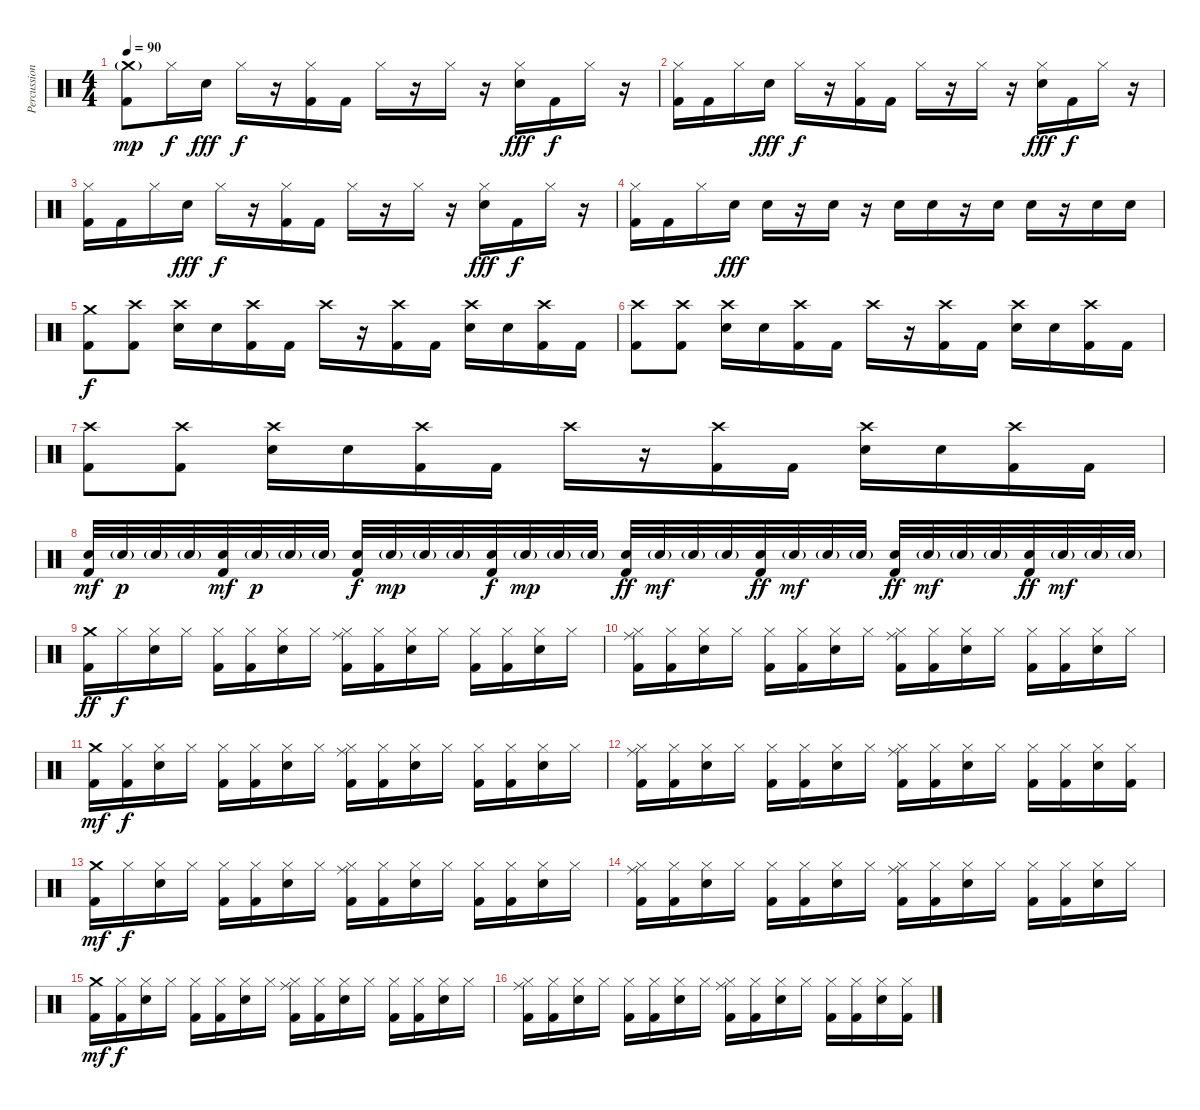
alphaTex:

\track ("Percussions" "Percussion") {instrument percussion}
\staff {score}
\articulation defaults
\ts (4 4)
\tempo 90
\clef neutral
\ks c
("Kick (hit) 2" "Crash medium (hit)"{g}).8{dy mp} "Hi-Hat (closed)".16{dy f} "Electric Snare (hit)".16{dy fff} "Hi-Hat (closed)".16{dy f} r.16 ("Kick (hit) 2" "Hi-Hat (closed)").16 "Kick (hit) 2".16 "Hi-Hat (closed)".16 r.16 "Hi-Hat (closed)".16 r.16 ("Electric Snare (hit)" "Hi-Hat (closed)").16{dy fff} "Kick (hit) 2".16{dy f} "Hi-Hat (closed)".16 r.16 |
("Kick (hit) 2" "Hi-Hat (closed)").16 "Kick (hit) 2".16 "Hi-Hat (closed)".16 "Electric Snare (hit)".16{dy fff} "Hi-Hat (closed)".16{dy f} r.16 ("Kick (hit) 2" "Hi-Hat (closed)").16 "Kick (hit) 2".16 "Hi-Hat (closed)".16 r.16 "Hi-Hat (closed)".16 r.16 ("Electric Snare (hit)" "Hi-Hat (closed)").16{dy fff} "Kick (hit) 2".16{dy f} "Hi-Hat (closed)".16 r.16 |
("Kick (hit) 2" "Hi-Hat (closed)").16 "Kick (hit) 2".16 "Hi-Hat (closed)".16 "Electric Snare (hit)".16{dy fff} "Hi-Hat (closed)".16{dy f} r.16 ("Kick (hit) 2" "Hi-Hat (closed)").16 "Kick (hit) 2".16 "Hi-Hat (closed)".16 r.16 "Hi-Hat (closed)".16 r.16 ("Electric Snare (hit)" "Hi-Hat (closed)").16{dy fff} "Kick (hit) 2".16{dy f} "Hi-Hat (closed)".16 r.16 |
("Kick (hit) 2" "Hi-Hat (closed)").16 "Kick (hit) 2".16 "Hi-Hat (closed)".16 "Electric Snare (hit)".16{dy fff} "Electric Snare (hit)".16 r.16 "Electric Snare (hit)".16 r.16 "Electric Snare (hit)".16 "Electric Snare (hit)".16 r.16 "Electric Snare (hit)".16 "Electric Snare (hit)".16 r.16 "Electric Snare (hit)".16 "Electric Snare (hit)".16 |
("Kick (hit) 2" "Crash medium (hit)").8{dy f} ("Kick (hit) 2" "Crash high (hit)").8 ("Electric Snare (hit)" "Crash high (hit)").16 "Electric Snare (hit)".16 ("Kick (hit) 2" "Crash high (hit)").16 "Kick (hit) 2".16 "Crash high (hit)".16 r.16 ("Kick (hit) 2" "Crash high (hit)").16 "Kick (hit) 2".16 ("Electric Snare (hit)" "Crash high (hit)").16 "Electric Snare (hit)".16 ("Kick (hit) 2" "Crash high (hit)").16 "Kick (hit) 2".16 |
("Kick (hit) 2" "Crash high (hit)").8 ("Kick (hit) 2" "Crash high (hit)").8 ("Electric Snare (hit)" "Crash high (hit)").16 "Electric Snare (hit)".16 ("Kick (hit) 2" "Crash high (hit)").16 "Kick (hit) 2".16 "Crash high (hit)".16 r.16 ("Kick (hit) 2" "Crash high (hit)").16 "Kick (hit) 2".16 ("Electric Snare (hit)" "Crash high (hit)").16 "Electric Snare (hit)".16 ("Kick (hit) 2" "Crash high (hit)").16 "Kick (hit) 2".16 |
("Kick (hit) 2" "Crash high (hit)").8 ("Kick (hit) 2" "Crash high (hit)").8 ("Electric Snare (hit)" "Crash high (hit)").16 "Electric Snare (hit)".16 ("Kick (hit) 2" "Crash high (hit)").16 "Kick (hit) 2".16 "Crash high (hit)".16 r.16 ("Kick (hit) 2" "Crash high (hit)").16 "Kick (hit) 2".16 ("Electric Snare (hit)" "Crash high (hit)").16 "Electric Snare (hit)".16 ("Kick (hit) 2" "Crash high (hit)").16 "Kick (hit) 2".16 |
("Electric Snare (hit)" "Kick (hit) 2").32{dy mf} "Electric Snare (hit)"{g}.32{dy p} "Electric Snare (hit)"{g}.32 "Electric Snare (hit)"{g}.32 ("Electric Snare (hit)" "Kick (hit) 2").32{dy mf} "Electric Snare (hit)"{g}.32{dy p} "Electric Snare (hit)"{g}.32 "Electric Snare (hit)"{g}.32 ("Electric Snare (hit)" "Kick (hit) 2").32{dy f} "Electric Snare (hit)"{g}.32{dy mp} "Electric Snare (hit)"{g}.32 "Electric Snare (hit)"{g}.32 ("Electric Snare (hit)" "Kick (hit) 2").32{dy f} "Electric Snare (hit)"{g}.32{dy mp} "Electric Snare (hit)"{g}.32 "Electric Snare (hit)"{g}.32 ("Electric Snare (hit)" "Kick (hit) 2").32{dy ff} "Electric Snare (hit)"{g}.32{dy mf} "Electric Snare (hit)"{g}.32 "Electric Snare (hit)"{g}.32 ("Electric Snare (hit)" "Kick (hit) 2").32{dy ff} "Electric Snare (hit)"{g}.32{dy mf} "Electric Snare (hit)"{g}.32 "Electric Snare (hit)"{g}.32 ("Electric Snare (hit)" "Kick (hit) 2").32{dy ff} "Electric Snare (hit)"{g}.32{dy mf} "Electric Snare (hit)"{g}.32 "Electric Snare (hit)"{g}.32 ("Electric Snare (hit)" "Kick (hit) 2").32{dy ff} "Electric Snare (hit)"{g}.32{dy mf} "Electric Snare (hit)"{g}.32 "Electric Snare (hit)"{g}.32 |
\section ("" "")
("Kick (hit) 2" "Crash medium (hit)").16{dy ff} "Hi-Hat (closed)".16{dy f} ("Electric Snare (hit)" "Hi-Hat (closed)").16 "Hi-Hat (closed)".16 ("Kick (hit) 2" "Hi-Hat (closed)").16 ("Kick (hit) 2" "Hi-Hat (closed)").16 ("Electric Snare (hit)" "Hi-Hat (closed)").16 "Hi-Hat (closed)".16 ("Kick (hit) 2" "Hi-Hat (closed)" "Ride (middle)").16 ("Kick (hit) 2" "Hi-Hat (closed)").16 ("Electric Snare (hit)" "Hi-Hat (closed)").16 "Hi-Hat (closed)".16 ("Kick (hit) 2" "Hi-Hat (closed)").16 ("Kick (hit) 2" "Hi-Hat (closed)").16 ("Electric Snare (hit)" "Hi-Hat (closed)").16 "Hi-Hat (closed)".16 |
("Kick (hit) 2" "Hi-Hat (closed)" "Ride (middle)").16 ("Kick (hit) 2" "Hi-Hat (closed)").16 ("Electric Snare (hit)" "Hi-Hat (closed)").16 "Hi-Hat (closed)".16 ("Kick (hit) 2" "Hi-Hat (closed)").16 ("Kick (hit) 2" "Hi-Hat (closed)").16 ("Electric Snare (hit)" "Hi-Hat (closed)").16 "Hi-Hat (closed)".16 ("Kick (hit) 2" "Hi-Hat (closed)" "Ride (middle)").16 ("Kick (hit) 2" "Hi-Hat (closed)").16 ("Electric Snare (hit)" "Hi-Hat (closed)").16 "Hi-Hat (closed)".16 ("Kick (hit) 2" "Hi-Hat (closed)").16 ("Kick (hit) 2" "Hi-Hat (closed)").16 ("Electric Snare (hit)" "Hi-Hat (closed)").16 "Hi-Hat (closed)".16 |
("Kick (hit) 2" "Crash medium (hit)").16{dy mf} ("Kick (hit) 2" "Hi-Hat (closed)").16{dy f} ("Electric Snare (hit)" "Hi-Hat (closed)").16 "Hi-Hat (closed)".16 ("Kick (hit) 2" "Hi-Hat (closed)").16 ("Kick (hit) 2" "Hi-Hat (closed)").16 ("Electric Snare (hit)" "Hi-Hat (closed)").16 "Hi-Hat (closed)".16 ("Kick (hit) 2" "Hi-Hat (closed)" "Ride (middle)").16 ("Kick (hit) 2" "Hi-Hat (closed)").16 ("Electric Snare (hit)" "Hi-Hat (closed)").16 "Hi-Hat (closed)".16 ("Kick (hit) 2" "Hi-Hat (closed)").16 ("Kick (hit) 2" "Hi-Hat (closed)").16 ("Electric Snare (hit)" "Hi-Hat (closed)").16 "Hi-Hat (closed)".16 |
("Kick (hit) 2" "Hi-Hat (closed)" "Ride (middle)").16 ("Kick (hit) 2" "Hi-Hat (closed)").16 ("Electric Snare (hit)" "Hi-Hat (closed)").16 "Hi-Hat (closed)".16 ("Kick (hit) 2" "Hi-Hat (closed)").16 ("Kick (hit) 2" "Hi-Hat (closed)").16 ("Electric Snare (hit)" "Hi-Hat (closed)").16 "Hi-Hat (closed)".16 ("Kick (hit) 2" "Hi-Hat (closed)" "Ride (middle)").16 ("Kick (hit) 2" "Hi-Hat (closed)").16 ("Electric Snare (hit)" "Hi-Hat (closed)").16 "Hi-Hat (closed)".16 ("Kick (hit) 2" "Hi-Hat (closed)").16 ("Kick (hit) 2" "Hi-Hat (closed)").16 ("Electric Snare (hit)" "Hi-Hat (closed)").16 ("Kick (hit) 2" "Hi-Hat (closed)").16 |
\section ("" "")
("Kick (hit) 2" "Crash medium (hit)").16{dy mf} "Hi-Hat (closed)".16{dy f} ("Electric Snare (hit)" "Hi-Hat (closed)").16 "Hi-Hat (closed)".16 ("Kick (hit) 2" "Hi-Hat (closed)").16 ("Kick (hit) 2" "Hi-Hat (closed)").16 ("Electric Snare (hit)" "Hi-Hat (closed)").16 "Hi-Hat (closed)".16 ("Kick (hit) 2" "Hi-Hat (closed)" "Ride (middle)").16 ("Kick (hit) 2" "Hi-Hat (closed)").16 ("Electric Snare (hit)" "Hi-Hat (closed)").16 "Hi-Hat (closed)".16 ("Kick (hit) 2" "Hi-Hat (closed)").16 ("Kick (hit) 2" "Hi-Hat (closed)").16 ("Electric Snare (hit)" "Hi-Hat (closed)").16 "Hi-Hat (closed)".16 |
("Kick (hit) 2" "Hi-Hat (closed)" "Ride (middle)").16 ("Kick (hit) 2" "Hi-Hat (closed)").16 ("Electric Snare (hit)" "Hi-Hat (closed)").16 "Hi-Hat (closed)".16 ("Kick (hit) 2" "Hi-Hat (closed)").16 ("Kick (hit) 2" "Hi-Hat (closed)").16 ("Electric Snare (hit)" "Hi-Hat (closed)").16 "Hi-Hat (closed)".16 ("Kick (hit) 2" "Hi-Hat (closed)" "Ride (middle)").16 ("Kick (hit) 2" "Hi-Hat (closed)").16 ("Electric Snare (hit)" "Hi-Hat (closed)").16 "Hi-Hat (closed)".16 ("Kick (hit) 2" "Hi-Hat (closed)").16 ("Kick (hit) 2" "Hi-Hat (closed)").16 ("Electric Snare (hit)" "Hi-Hat (closed)").16 "Hi-Hat (closed)".16 |
("Kick (hit) 2" "Crash medium (hit)").16{dy mf} ("Kick (hit) 2" "Hi-Hat (closed)").16{dy f} ("Electric Snare (hit)" "Hi-Hat (closed)").16 "Hi-Hat (closed)".16 ("Kick (hit) 2" "Hi-Hat (closed)").16 ("Kick (hit) 2" "Hi-Hat (closed)").16 ("Electric Snare (hit)" "Hi-Hat (closed)").16 "Hi-Hat (closed)".16 ("Kick (hit) 2" "Hi-Hat (closed)" "Ride (middle)").16 ("Kick (hit) 2" "Hi-Hat (closed)").16 ("Electric Snare (hit)" "Hi-Hat (closed)").16 "Hi-Hat (closed)".16 ("Kick (hit) 2" "Hi-Hat (closed)").16 ("Kick (hit) 2" "Hi-Hat (closed)").16 ("Electric Snare (hit)" "Hi-Hat (closed)").16 "Hi-Hat (closed)".16 |
("Kick (hit) 2" "Hi-Hat (closed)" "Ride (middle)").16 ("Kick (hit) 2" "Hi-Hat (closed)").16 ("Electric Snare (hit)" "Hi-Hat (closed)").16 "Hi-Hat (closed)".16 ("Kick (hit) 2" "Hi-Hat (closed)").16 ("Kick (hit) 2" "Hi-Hat (closed)").16 ("Electric Snare (hit)" "Hi-Hat (closed)").16 "Hi-Hat (closed)".16 ("Kick (hit) 2" "Hi-Hat (closed)" "Ride (middle)").16 ("Kick (hit) 2" "Hi-Hat (closed)").16 ("Electric Snare (hit)" "Hi-Hat (closed)").16 "Hi-Hat (closed)".16 ("Kick (hit) 2" "Hi-Hat (closed)").16 ("Kick (hit) 2" "Hi-Hat (closed)").16 ("Electric Snare (hit)" "Hi-Hat (closed)").16 ("Kick (hit) 2" "Hi-Hat (closed)").16
